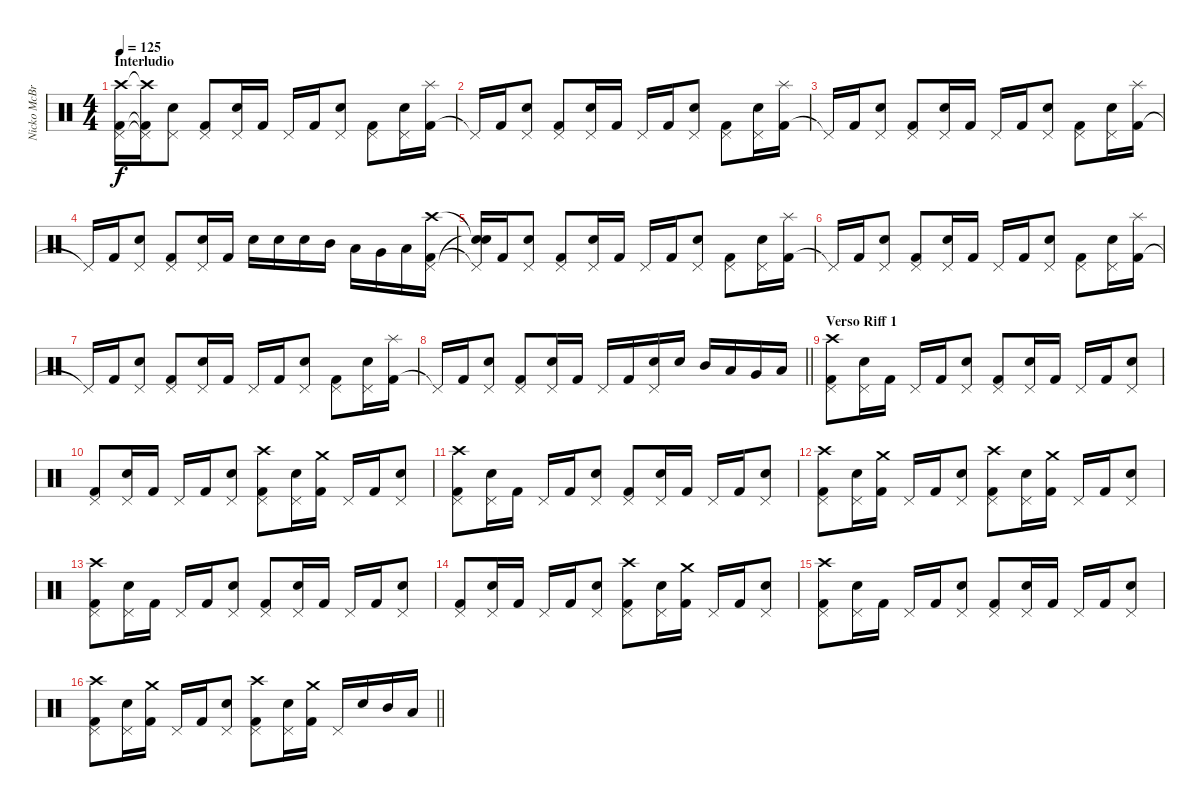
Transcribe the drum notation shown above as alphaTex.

\track ("Nicko McBrain" "Nicko McBr") {instrument percussion}
\staff {score}
\articulation defaults
\ts (4 4)
\section ("" "Interludio")
\tempo 125
\clef neutral
\ks c
("Kick (hit) 2" "Pedal Hi-Hat (hit)" "Crash high (hit)").16{dy f} ("Kick (hit) 2"{t} "Pedal Hi-Hat (hit)"{t} "Crash high (hit)"{t}).16 ("Snare (hit) 2" "Pedal Hi-Hat (hit)").8 ("Kick (hit) 2" "Pedal Hi-Hat (hit)").8 ("Snare (hit) 2" "Pedal Hi-Hat (hit)").16 "Kick (hit) 2".16 "Pedal Hi-Hat (hit)".16 "Kick (hit) 2".16 ("Snare (hit) 2" "Pedal Hi-Hat (hit)").8 ("Kick (hit) 2" "Pedal Hi-Hat (hit)").8 ("Snare (hit) 2" "Pedal Hi-Hat (hit)").16 ("Kick (hit) 2" "Splash (hit)").16 |
"Pedal Hi-Hat (hit)"{t}.16 "Kick (hit) 2".16 ("Snare (hit) 2" "Pedal Hi-Hat (hit)").8 ("Kick (hit) 2" "Pedal Hi-Hat (hit)").8 ("Snare (hit) 2" "Pedal Hi-Hat (hit)").16 "Kick (hit) 2".16 "Pedal Hi-Hat (hit)".16 "Kick (hit) 2".16 ("Snare (hit) 2" "Pedal Hi-Hat (hit)").8 ("Kick (hit) 2" "Pedal Hi-Hat (hit)").8 ("Snare (hit) 2" "Pedal Hi-Hat (hit)").16 ("Kick (hit) 2" "Splash (hit)").16 |
"Pedal Hi-Hat (hit)"{t}.16 "Kick (hit) 2".16 ("Snare (hit) 2" "Pedal Hi-Hat (hit)").8 ("Kick (hit) 2" "Pedal Hi-Hat (hit)").8 ("Snare (hit) 2" "Pedal Hi-Hat (hit)").16 "Kick (hit) 2".16 "Pedal Hi-Hat (hit)".16 "Kick (hit) 2".16 ("Snare (hit) 2" "Pedal Hi-Hat (hit)").8 ("Kick (hit) 2" "Pedal Hi-Hat (hit)").8 ("Snare (hit) 2" "Pedal Hi-Hat (hit)").16 ("Kick (hit) 2" "Splash (hit)").16 |
"Pedal Hi-Hat (hit)"{t}.16 "Kick (hit) 2".16 ("Snare (hit) 2" "Pedal Hi-Hat (hit)").8 ("Kick (hit) 2" "Pedal Hi-Hat (hit)").8 ("Snare (hit) 2" "Pedal Hi-Hat (hit)").16 "Kick (hit) 2".16 "Snare (hit) 2".16 "Snare (hit) 2".16 "Snare (hit) 2".16 "Mid Tom (hit)".16 "Low Tom (hit)".16 "Very Low Tom (hit)".16 "Low Floor Tom (hit)".16 ("Kick (hit) 2" "Pedal Hi-Hat (hit)" "Crash high (hit)").16 |
("Pedal Hi-Hat (hit)"{t} "Snare (hit)"{t} "Snare (hit)"{t}).16 "Kick (hit) 2".16 ("Snare (hit) 2" "Pedal Hi-Hat (hit)").8 ("Kick (hit) 2" "Pedal Hi-Hat (hit)").8 ("Snare (hit) 2" "Pedal Hi-Hat (hit)").16 "Kick (hit) 2".16 "Pedal Hi-Hat (hit)".16 "Kick (hit) 2".16 ("Snare (hit) 2" "Pedal Hi-Hat (hit)").8 ("Kick (hit) 2" "Pedal Hi-Hat (hit)").8 ("Snare (hit) 2" "Pedal Hi-Hat (hit)").16 ("Kick (hit) 2" "Splash (hit)").16 |
"Pedal Hi-Hat (hit)"{t}.16 "Kick (hit) 2".16 ("Snare (hit) 2" "Pedal Hi-Hat (hit)").8 ("Kick (hit) 2" "Pedal Hi-Hat (hit)").8 ("Snare (hit) 2" "Pedal Hi-Hat (hit)").16 "Kick (hit) 2".16 "Pedal Hi-Hat (hit)".16 "Kick (hit) 2".16 ("Snare (hit) 2" "Pedal Hi-Hat (hit)").8 ("Kick (hit) 2" "Pedal Hi-Hat (hit)").8 ("Snare (hit) 2" "Pedal Hi-Hat (hit)").16 ("Kick (hit) 2" "Splash (hit)").16 |
"Pedal Hi-Hat (hit)"{t}.16 "Kick (hit) 2".16 ("Snare (hit) 2" "Pedal Hi-Hat (hit)").8 ("Kick (hit) 2" "Pedal Hi-Hat (hit)").8 ("Snare (hit) 2" "Pedal Hi-Hat (hit)").16 "Kick (hit) 2".16 "Pedal Hi-Hat (hit)".16 "Kick (hit) 2".16 ("Snare (hit) 2" "Pedal Hi-Hat (hit)").8 ("Kick (hit) 2" "Pedal Hi-Hat (hit)").8 ("Snare (hit) 2" "Pedal Hi-Hat (hit)").16 ("Kick (hit) 2" "Splash (hit)").16 |
\barLineRight lightlight "Pedal Hi-Hat (hit)"{t}.16 "Kick (hit) 2".16
("Snare (hit) 2" "Pedal Hi-Hat (hit)").8 ("Kick (hit) 2" "Pedal Hi-Hat (hit)").8 ("Snare (hit) 2" "Pedal Hi-Hat (hit)").16 "Kick (hit) 2".16 "Pedal Hi-Hat (hit)".16 "Kick (hit) 2".16 ("Snare (hit) 2" "Pedal Hi-Hat (hit)").16 "Snare (hit) 2".16 "Mid Tom (hit)".16 "Low Tom (hit)".16 "Very Low Tom (hit)".16 "Low Floor Tom (hit)".16 |
\section ("" "Verso Riff 1")
("Kick (hit) 2" "Pedal Hi-Hat (hit)" "Crash high (hit)").8 ("Snare (hit) 2" "Pedal Hi-Hat (hit)").16 "Kick (hit) 2".16 "Pedal Hi-Hat (hit)".16 "Kick (hit) 2".16 ("Snare (hit) 2" "Pedal Hi-Hat (hit)").8 ("Kick (hit) 2" "Pedal Hi-Hat (hit)").8 ("Snare (hit) 2" "Pedal Hi-Hat (hit)").16 "Kick (hit) 2".16 "Pedal Hi-Hat (hit)".16 "Kick (hit) 2".16 ("Snare (hit) 2" "Pedal Hi-Hat (hit)").8 |
("Kick (hit) 2" "Pedal Hi-Hat (hit)").8 ("Snare (hit) 2" "Pedal Hi-Hat (hit)").16 "Kick (hit) 2".16 "Pedal Hi-Hat (hit)".16 "Kick (hit) 2".16 ("Snare (hit) 2" "Pedal Hi-Hat (hit)").8 ("Kick (hit) 2" "Pedal Hi-Hat (hit)" "Crash high (hit)").8 ("Snare (hit) 2" "Pedal Hi-Hat (hit)").16 ("Kick (hit) 2" "Crash medium (hit)").16 "Pedal Hi-Hat (hit)".16 "Kick (hit) 2".16 ("Snare (hit) 2" "Pedal Hi-Hat (hit)").8 |
("Kick (hit) 2" "Pedal Hi-Hat (hit)" "Crash high (hit)").8 ("Snare (hit) 2" "Pedal Hi-Hat (hit)").16 "Kick (hit) 2".16 "Pedal Hi-Hat (hit)".16 "Kick (hit) 2".16 ("Snare (hit) 2" "Pedal Hi-Hat (hit)").8 ("Kick (hit) 2" "Pedal Hi-Hat (hit)").8 ("Snare (hit) 2" "Pedal Hi-Hat (hit)").16 "Kick (hit) 2".16 "Pedal Hi-Hat (hit)".16 "Kick (hit) 2".16 ("Snare (hit) 2" "Pedal Hi-Hat (hit)").8 |
("Kick (hit) 2" "Pedal Hi-Hat (hit)" "Crash high (hit)").8 ("Snare (hit) 2" "Pedal Hi-Hat (hit)").16 ("Kick (hit) 2" "Crash medium (hit)").16 "Pedal Hi-Hat (hit)".16 "Kick (hit) 2".16 ("Snare (hit) 2" "Pedal Hi-Hat (hit)").8 ("Kick (hit) 2" "Pedal Hi-Hat (hit)" "Crash high (hit)").8 ("Snare (hit) 2" "Pedal Hi-Hat (hit)").16 ("Kick (hit) 2" "Crash medium (hit)").16 "Pedal Hi-Hat (hit)".16 "Kick (hit) 2".16 ("Snare (hit) 2" "Pedal Hi-Hat (hit)").8 |
("Kick (hit) 2" "Pedal Hi-Hat (hit)" "Crash high (hit)").8 ("Snare (hit) 2" "Pedal Hi-Hat (hit)").16 "Kick (hit) 2".16 "Pedal Hi-Hat (hit)".16 "Kick (hit) 2".16 ("Snare (hit) 2" "Pedal Hi-Hat (hit)").8 ("Kick (hit) 2" "Pedal Hi-Hat (hit)").8 ("Snare (hit) 2" "Pedal Hi-Hat (hit)").16 "Kick (hit) 2".16 "Pedal Hi-Hat (hit)".16 "Kick (hit) 2".16 ("Snare (hit) 2" "Pedal Hi-Hat (hit)").8 |
("Kick (hit) 2" "Pedal Hi-Hat (hit)").8 ("Snare (hit) 2" "Pedal Hi-Hat (hit)").16 "Kick (hit) 2".16 "Pedal Hi-Hat (hit)".16 "Kick (hit) 2".16 ("Snare (hit) 2" "Pedal Hi-Hat (hit)").8 ("Kick (hit) 2" "Pedal Hi-Hat (hit)" "Crash high (hit)").8 ("Snare (hit) 2" "Pedal Hi-Hat (hit)").16 ("Kick (hit) 2" "Crash medium (hit)").16 "Pedal Hi-Hat (hit)".16 "Kick (hit) 2".16 ("Snare (hit) 2" "Pedal Hi-Hat (hit)").8 |
("Kick (hit) 2" "Pedal Hi-Hat (hit)" "Crash high (hit)").8 ("Snare (hit) 2" "Pedal Hi-Hat (hit)").16 "Kick (hit) 2".16 "Pedal Hi-Hat (hit)".16 "Kick (hit) 2".16 ("Snare (hit) 2" "Pedal Hi-Hat (hit)").8 ("Kick (hit) 2" "Pedal Hi-Hat (hit)").8 ("Snare (hit) 2" "Pedal Hi-Hat (hit)").16 "Kick (hit) 2".16 "Pedal Hi-Hat (hit)".16 "Kick (hit) 2".16 ("Snare (hit) 2" "Pedal Hi-Hat (hit)").8 |
\barLineRight lightlight
("Kick (hit) 2" "Pedal Hi-Hat (hit)" "Crash high (hit)").8 ("Snare (hit) 2" "Pedal Hi-Hat (hit)").16 ("Kick (hit) 2" "Crash medium (hit)").16 "Pedal Hi-Hat (hit)".16 "Kick (hit) 2".16 ("Snare (hit) 2" "Pedal Hi-Hat (hit)").8 ("Kick (hit) 2" "Pedal Hi-Hat (hit)" "Crash high (hit)").8 ("Snare (hit) 2" "Pedal Hi-Hat (hit)").16 ("Kick (hit) 2" "Crash medium (hit)").16 "Pedal Hi-Hat (hit)".16 "Snare (hit) 2".16 "Mid Tom (hit)".16 "Low Tom (hit)".16
